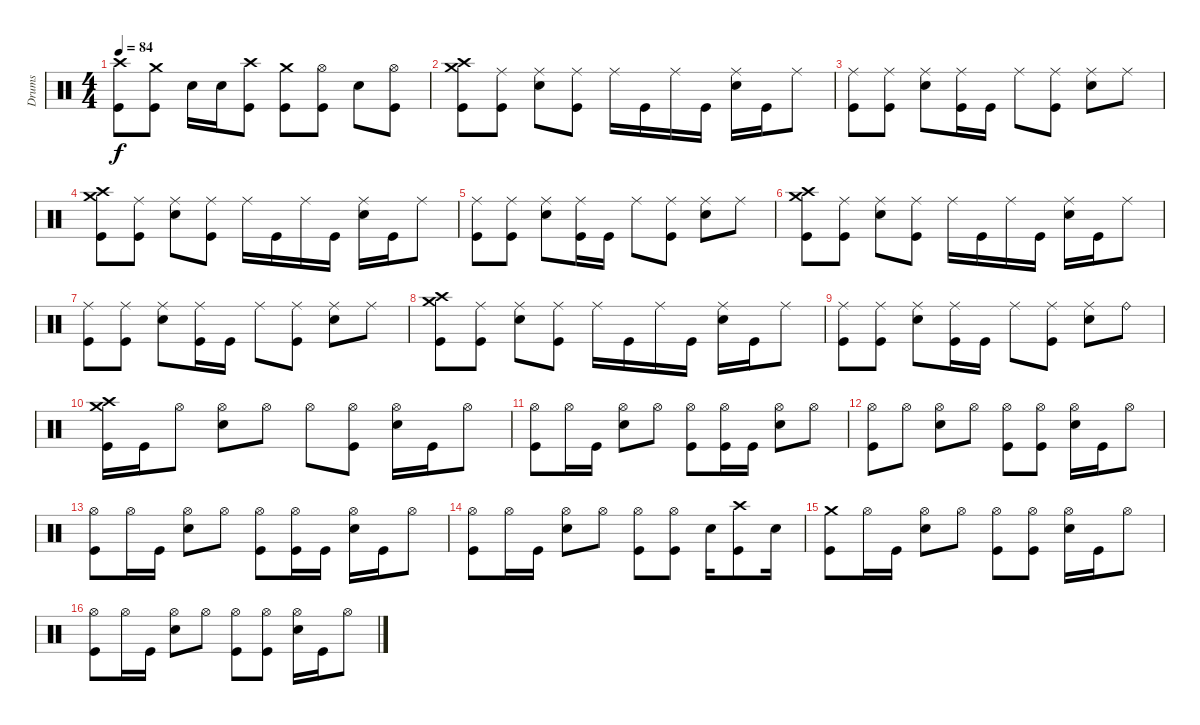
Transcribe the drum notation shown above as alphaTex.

\track ("Drums" "Drums") {instrument percussion}
\staff {score}
\articulation defaults
\ts (4 4)
\tempo 84
\clef neutral
\ks c
("Crash high (hit)" "Kick (hit)").8{dy f} ("Crash medium (hit)" "Kick (hit)").8 "Snare (hit) 2".16 "Snare (hit) 2".16 ("Crash high (hit)" "Kick (hit)").8 ("Crash medium (hit)" "Kick (hit)").8 ("Kick (hit)" "Hi-Hat (open)").8 "Snare (hit) 2".8 ("Kick (hit)" "Hi-Hat (open)").8 |
("Crash medium (hit)" "Crash high (hit)" "Kick (hit)").8 ("Ride (middle)" "Kick (hit)").8 ("Ride (middle)" "Snare (hit) 2").8 ("Ride (middle)" "Kick (hit)").8 "Ride (middle)".16 "Kick (hit)".16 "Ride (middle)".16 "Kick (hit)".16 ("Ride (middle)" "Snare (hit) 2").16 "Kick (hit)".16 "Ride (middle)".8 |
("Ride (middle)" "Kick (hit)").8 ("Ride (middle)" "Kick (hit)").8 ("Ride (middle)" "Snare (hit) 2").8 ("Ride (middle)" "Kick (hit)").16 "Kick (hit)".16 "Ride (middle)".8 ("Ride (middle)" "Kick (hit)").8 ("Ride (middle)" "Snare (hit) 2").8 "Ride (middle)".8 |
("Crash medium (hit)" "Crash high (hit)" "Kick (hit)").8 ("Ride (middle)" "Kick (hit)").8 ("Ride (middle)" "Snare (hit) 2").8 ("Ride (middle)" "Kick (hit)").8 "Ride (middle)".16 "Kick (hit)".16 "Ride (middle)".16 "Kick (hit)".16 ("Ride (middle)" "Snare (hit) 2").16 "Kick (hit)".16 "Ride (middle)".8 |
("Ride (middle)" "Kick (hit)").8 ("Ride (middle)" "Kick (hit)").8 ("Ride (middle)" "Snare (hit) 2").8 ("Ride (middle)" "Kick (hit)").16 "Kick (hit)".16 "Ride (middle)".8 ("Ride (middle)" "Kick (hit)").8 ("Ride (middle)" "Snare (hit) 2").8 "Ride (middle)".8 |
("Crash medium (hit)" "Crash high (hit)" "Kick (hit)").8 ("Ride (middle)" "Kick (hit)").8 ("Ride (middle)" "Snare (hit) 2").8 ("Ride (middle)" "Kick (hit)").8 "Ride (middle)".16 "Kick (hit)".16 "Ride (middle)".16 "Kick (hit)".16 ("Ride (middle)" "Snare (hit) 2").16 "Kick (hit)".16 "Ride (middle)".8 |
("Ride (middle)" "Kick (hit)").8 ("Ride (middle)" "Kick (hit)").8 ("Ride (middle)" "Snare (hit) 2").8 ("Ride (middle)" "Kick (hit)").16 "Kick (hit)".16 "Ride (middle)".8 ("Ride (middle)" "Kick (hit)").8 ("Ride (middle)" "Snare (hit) 2").8 "Ride (middle)".8 |
("Crash medium (hit)" "Crash high (hit)" "Kick (hit)").8 ("Ride (middle)" "Kick (hit)").8 ("Ride (middle)" "Snare (hit) 2").8 ("Ride (middle)" "Kick (hit)").8 "Ride (middle)".16 "Kick (hit)".16 "Ride (middle)".16 "Kick (hit)".16 ("Ride (middle)" "Snare (hit) 2").16 "Kick (hit)".16 "Ride (middle)".8 |
("Ride (middle)" "Kick (hit)").8 ("Ride (middle)" "Kick (hit)").8 ("Ride (middle)" "Snare (hit) 2").8 ("Ride (middle)" "Kick (hit)").16 "Kick (hit)".16 "Ride (middle)".8 ("Ride (middle)" "Kick (hit)").8 ("Ride (middle)" "Snare (hit) 2").8 "Ride (bell)".8 |
("Crash medium (hit)" "Crash high (hit)" "Kick (hit)").16 "Kick (hit)".16 "Hi-Hat (open)".8 ("Snare (hit) 2" "Hi-Hat (open)").8 "Hi-Hat (open)".8 "Hi-Hat (open)".8 ("Kick (hit)" "Hi-Hat (open)").8 ("Snare (hit) 2" "Hi-Hat (open)").16 "Kick (hit)".16 "Hi-Hat (open)".8 |
("Kick (hit)" "Hi-Hat (open)").8 "Hi-Hat (open)".16 "Kick (hit)".16 ("Snare (hit) 2" "Hi-Hat (open)").8 "Hi-Hat (open)".8 ("Kick (hit)" "Hi-Hat (open)").8 ("Kick (hit)" "Hi-Hat (open)").16 "Kick (hit)".16 ("Snare (hit) 2" "Hi-Hat (open)").8 "Hi-Hat (open)".8 |
("Kick (hit)" "Hi-Hat (open)").8 "Hi-Hat (open)".8 ("Snare (hit) 2" "Hi-Hat (open)").8 "Hi-Hat (open)".8 ("Kick (hit)" "Hi-Hat (open)").8 ("Kick (hit)" "Hi-Hat (open)").8 ("Snare (hit) 2" "Hi-Hat (open)").16 "Kick (hit)".16 "Hi-Hat (open)".8 |
("Kick (hit)" "Hi-Hat (open)").8 "Hi-Hat (open)".16 "Kick (hit)".16 ("Snare (hit) 2" "Hi-Hat (open)").8 "Hi-Hat (open)".8 ("Kick (hit)" "Hi-Hat (open)").8 ("Kick (hit)" "Hi-Hat (open)").16 "Kick (hit)".16 ("Snare (hit) 2" "Hi-Hat (open)").16 "Kick (hit)".16 "Hi-Hat (open)".8 |
("Kick (hit)" "Hi-Hat (open)").8 "Hi-Hat (open)".16 "Kick (hit)".16 ("Snare (hit) 2" "Hi-Hat (open)").8 "Hi-Hat (open)".8 ("Kick (hit)" "Hi-Hat (open)").8 ("Kick (hit)" "Hi-Hat (open)").8 "Snare (hit) 2".16 ("Crash high (hit)" "Kick (hit)").8 "Snare (hit) 2".16 |
("Crash medium (hit)" "Kick (hit)").8 "Hi-Hat (open)".16 "Kick (hit)".16 ("Snare (hit) 2" "Hi-Hat (open)").8 "Hi-Hat (open)".8 ("Kick (hit)" "Hi-Hat (open)").8 ("Kick (hit)" "Hi-Hat (open)").8 ("Snare (hit) 2" "Hi-Hat (open)").16 "Kick (hit)".16 "Hi-Hat (open)".8 |
("Kick (hit)" "Hi-Hat (open)").8 "Hi-Hat (open)".16 "Kick (hit)".16 ("Snare (hit) 2" "Hi-Hat (open)").8 "Hi-Hat (open)".8 ("Kick (hit)" "Hi-Hat (open)").8 ("Kick (hit)" "Hi-Hat (open)").8 ("Snare (hit) 2" "Hi-Hat (open)").16 "Kick (hit)".16 "Hi-Hat (open)".8
